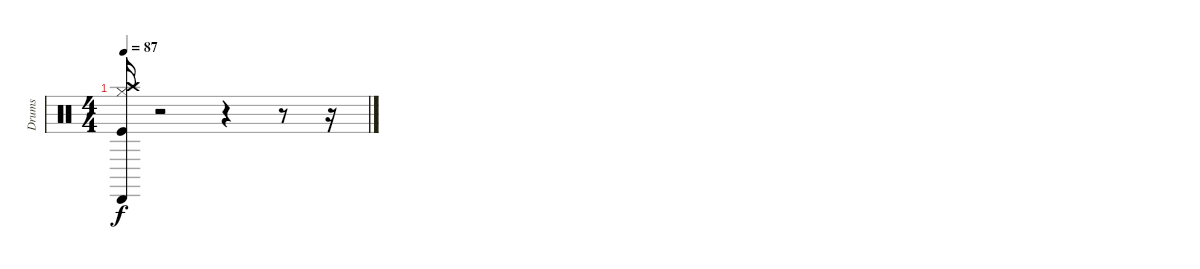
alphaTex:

\track ("Drums" "Drums") {instrument percussion}
\staff {score}
\articulation defaults
\ts (4 4)
\tempo 87
\clef neutral
\ks c
("Kick (hit)" "Hi-Hat (closed)" "Crash high (hit)" "Cabasa (hit)").16{dy f} r.2 r.4 r.8 r.16
